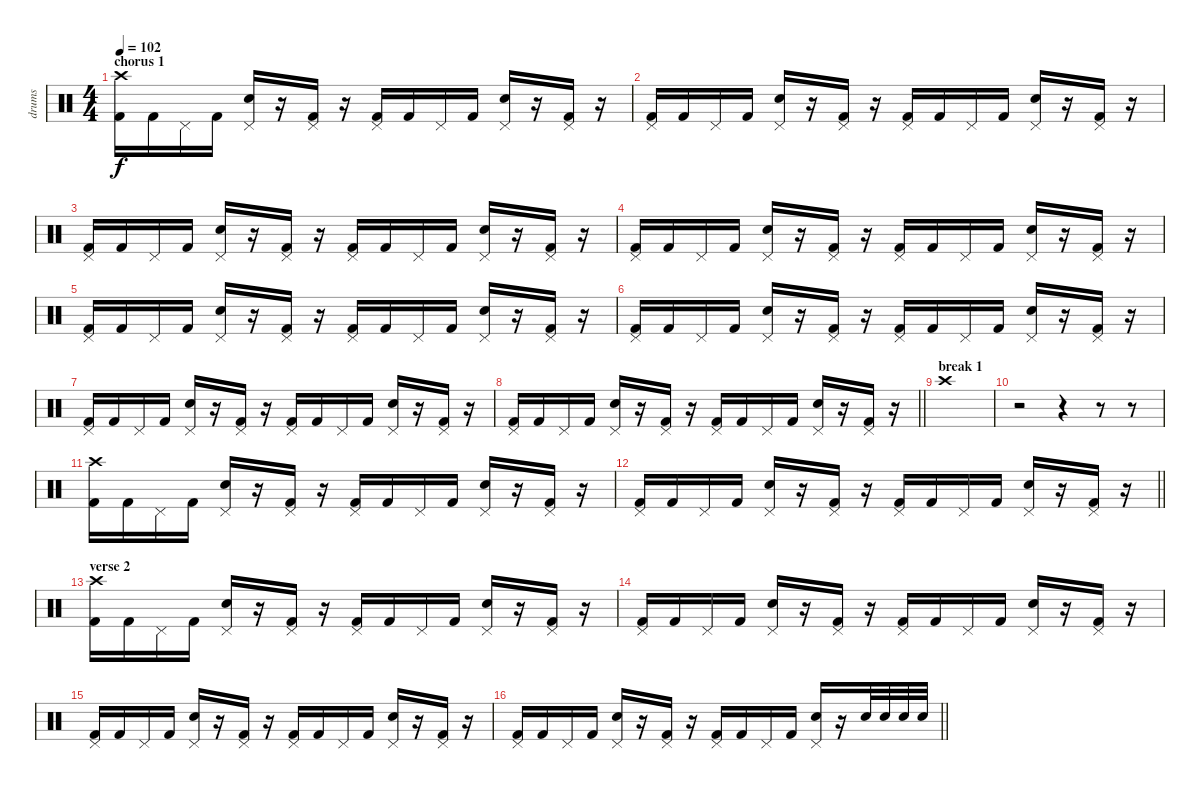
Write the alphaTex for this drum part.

\track ("drums" "drums") {instrument percussion}
\staff {score}
\articulation defaults
\ts (4 4)
\section ("" "chorus 1")
\tempo 102
\clef neutral
\ks c
("Kick (hit) 2" "Crash high (hit)").16{dy f} "Kick (hit) 2".16 "Pedal Hi-Hat (hit)".16 "Kick (hit) 2".16 ("Electric Snare (hit)" "Pedal Hi-Hat (hit)").16 r.16 ("Kick (hit) 2" "Pedal Hi-Hat (hit)").16 r.16 ("Kick (hit) 2" "Pedal Hi-Hat (hit)").16 "Kick (hit) 2".16 "Pedal Hi-Hat (hit)".16 "Kick (hit) 2".16 ("Electric Snare (hit)" "Pedal Hi-Hat (hit)").16 r.16 ("Kick (hit) 2" "Pedal Hi-Hat (hit)").16 r.16 |
("Kick (hit) 2" "Pedal Hi-Hat (hit)").16 "Kick (hit) 2".16 "Pedal Hi-Hat (hit)".16 "Kick (hit) 2".16 ("Electric Snare (hit)" "Pedal Hi-Hat (hit)").16 r.16 ("Kick (hit) 2" "Pedal Hi-Hat (hit)").16 r.16 ("Kick (hit) 2" "Pedal Hi-Hat (hit)").16 "Kick (hit) 2".16 "Pedal Hi-Hat (hit)".16 "Kick (hit) 2".16 ("Electric Snare (hit)" "Pedal Hi-Hat (hit)").16 r.16 ("Kick (hit) 2" "Pedal Hi-Hat (hit)").16 r.16 |
("Kick (hit) 2" "Pedal Hi-Hat (hit)").16 "Kick (hit) 2".16 "Pedal Hi-Hat (hit)".16 "Kick (hit) 2".16 ("Electric Snare (hit)" "Pedal Hi-Hat (hit)").16 r.16 ("Kick (hit) 2" "Pedal Hi-Hat (hit)").16 r.16 ("Kick (hit) 2" "Pedal Hi-Hat (hit)").16 "Kick (hit) 2".16 "Pedal Hi-Hat (hit)".16 "Kick (hit) 2".16 ("Electric Snare (hit)" "Pedal Hi-Hat (hit)").16 r.16 ("Kick (hit) 2" "Pedal Hi-Hat (hit)").16 r.16 |
("Kick (hit) 2" "Pedal Hi-Hat (hit)").16 "Kick (hit) 2".16 "Pedal Hi-Hat (hit)".16 "Kick (hit) 2".16 ("Electric Snare (hit)" "Pedal Hi-Hat (hit)").16 r.16 ("Kick (hit) 2" "Pedal Hi-Hat (hit)").16 r.16 ("Kick (hit) 2" "Pedal Hi-Hat (hit)").16 "Kick (hit) 2".16 "Pedal Hi-Hat (hit)".16 "Kick (hit) 2".16 ("Electric Snare (hit)" "Pedal Hi-Hat (hit)").16 r.16 ("Kick (hit) 2" "Pedal Hi-Hat (hit)").16 r.16 |
("Kick (hit) 2" "Pedal Hi-Hat (hit)").16 "Kick (hit) 2".16 "Pedal Hi-Hat (hit)".16 "Kick (hit) 2".16 ("Electric Snare (hit)" "Pedal Hi-Hat (hit)").16 r.16 ("Kick (hit) 2" "Pedal Hi-Hat (hit)").16 r.16 ("Kick (hit) 2" "Pedal Hi-Hat (hit)").16 "Kick (hit) 2".16 "Pedal Hi-Hat (hit)".16 "Kick (hit) 2".16 ("Electric Snare (hit)" "Pedal Hi-Hat (hit)").16 r.16 ("Kick (hit) 2" "Pedal Hi-Hat (hit)").16 r.16 |
("Kick (hit) 2" "Pedal Hi-Hat (hit)").16 "Kick (hit) 2".16 "Pedal Hi-Hat (hit)".16 "Kick (hit) 2".16 ("Electric Snare (hit)" "Pedal Hi-Hat (hit)").16 r.16 ("Kick (hit) 2" "Pedal Hi-Hat (hit)").16 r.16 ("Kick (hit) 2" "Pedal Hi-Hat (hit)").16 "Kick (hit) 2".16 "Pedal Hi-Hat (hit)".16 "Kick (hit) 2".16 ("Electric Snare (hit)" "Pedal Hi-Hat (hit)").16 r.16 ("Kick (hit) 2" "Pedal Hi-Hat (hit)").16 r.16 |
("Kick (hit) 2" "Pedal Hi-Hat (hit)").16 "Kick (hit) 2".16 "Pedal Hi-Hat (hit)".16 "Kick (hit) 2".16 ("Electric Snare (hit)" "Pedal Hi-Hat (hit)").16 r.16 ("Kick (hit) 2" "Pedal Hi-Hat (hit)").16 r.16 ("Kick (hit) 2" "Pedal Hi-Hat (hit)").16 "Kick (hit) 2".16 "Pedal Hi-Hat (hit)".16 "Kick (hit) 2".16 ("Electric Snare (hit)" "Pedal Hi-Hat (hit)").16 r.16 ("Kick (hit) 2" "Pedal Hi-Hat (hit)").16 r.16 |
\barLineRight lightlight
("Kick (hit) 2" "Pedal Hi-Hat (hit)").16 "Kick (hit) 2".16 "Pedal Hi-Hat (hit)".16 "Kick (hit) 2".16 ("Electric Snare (hit)" "Pedal Hi-Hat (hit)").16 r.16 ("Kick (hit) 2" "Pedal Hi-Hat (hit)").16 r.16 ("Kick (hit) 2" "Pedal Hi-Hat (hit)").16 "Kick (hit) 2".16 "Pedal Hi-Hat (hit)".16 "Kick (hit) 2".16 ("Electric Snare (hit)" "Pedal Hi-Hat (hit)").16 r.16 ("Kick (hit) 2" "Pedal Hi-Hat (hit)").16 r.16 |
\section ("" "break 1")
"Crash high (hit)".1 |
r.2 r.4 r.8 r.8 |
("Kick (hit) 2" "Crash high (hit)").16 "Kick (hit) 2".16 "Pedal Hi-Hat (hit)".16 "Kick (hit) 2".16 ("Electric Snare (hit)" "Pedal Hi-Hat (hit)").16 r.16 ("Kick (hit) 2" "Pedal Hi-Hat (hit)").16 r.16 ("Kick (hit) 2" "Pedal Hi-Hat (hit)").16 "Kick (hit) 2".16 "Pedal Hi-Hat (hit)".16 "Kick (hit) 2".16 ("Electric Snare (hit)" "Pedal Hi-Hat (hit)").16 r.16 ("Kick (hit) 2" "Pedal Hi-Hat (hit)").16 r.16 |
\barLineRight lightlight
("Kick (hit) 2" "Pedal Hi-Hat (hit)").16 "Kick (hit) 2".16 "Pedal Hi-Hat (hit)".16 "Kick (hit) 2".16 ("Electric Snare (hit)" "Pedal Hi-Hat (hit)").16 r.16 ("Kick (hit) 2" "Pedal Hi-Hat (hit)").16 r.16 ("Kick (hit) 2" "Pedal Hi-Hat (hit)").16 "Kick (hit) 2".16 "Pedal Hi-Hat (hit)".16 "Kick (hit) 2".16 ("Electric Snare (hit)" "Pedal Hi-Hat (hit)").16 r.16 ("Kick (hit) 2" "Pedal Hi-Hat (hit)").16 r.16 |
\section ("" "verse 2 ")
("Kick (hit) 2" "Crash high (hit)").16 "Kick (hit) 2".16 "Pedal Hi-Hat (hit)".16 "Kick (hit) 2".16 ("Electric Snare (hit)" "Pedal Hi-Hat (hit)").16 r.16 ("Kick (hit) 2" "Pedal Hi-Hat (hit)").16 r.16 ("Kick (hit) 2" "Pedal Hi-Hat (hit)").16 "Kick (hit) 2".16 "Pedal Hi-Hat (hit)".16 "Kick (hit) 2".16 ("Electric Snare (hit)" "Pedal Hi-Hat (hit)").16 r.16 ("Kick (hit) 2" "Pedal Hi-Hat (hit)").16 r.16 |
("Kick (hit) 2" "Pedal Hi-Hat (hit)").16 "Kick (hit) 2".16 "Pedal Hi-Hat (hit)".16 "Kick (hit) 2".16 ("Electric Snare (hit)" "Pedal Hi-Hat (hit)").16 r.16 ("Kick (hit) 2" "Pedal Hi-Hat (hit)").16 r.16 ("Kick (hit) 2" "Pedal Hi-Hat (hit)").16 "Kick (hit) 2".16 "Pedal Hi-Hat (hit)".16 "Kick (hit) 2".16 ("Electric Snare (hit)" "Pedal Hi-Hat (hit)").16 r.16 ("Kick (hit) 2" "Pedal Hi-Hat (hit)").16 r.16 |
("Kick (hit) 2" "Pedal Hi-Hat (hit)").16 "Kick (hit) 2".16 "Pedal Hi-Hat (hit)".16 "Kick (hit) 2".16 ("Electric Snare (hit)" "Pedal Hi-Hat (hit)").16 r.16 ("Kick (hit) 2" "Pedal Hi-Hat (hit)").16 r.16 ("Kick (hit) 2" "Pedal Hi-Hat (hit)").16 "Kick (hit) 2".16 "Pedal Hi-Hat (hit)".16 "Kick (hit) 2".16 ("Electric Snare (hit)" "Pedal Hi-Hat (hit)").16 r.16 ("Kick (hit) 2" "Pedal Hi-Hat (hit)").16 r.16 |
\barLineRight lightlight
("Kick (hit) 2" "Pedal Hi-Hat (hit)").16 "Kick (hit) 2".16 "Pedal Hi-Hat (hit)".16 "Kick (hit) 2".16 ("Electric Snare (hit)" "Pedal Hi-Hat (hit)").16 r.16 ("Kick (hit) 2" "Pedal Hi-Hat (hit)").16 r.16 ("Kick (hit) 2" "Pedal Hi-Hat (hit)").16 "Kick (hit) 2".16 "Pedal Hi-Hat (hit)".16 "Kick (hit) 2".16 ("Electric Snare (hit)" "Pedal Hi-Hat (hit)").16 r.16 "Electric Snare (hit)".32 "Electric Snare (hit)".32 "Electric Snare (hit)".32 "Electric Snare (hit)".32
